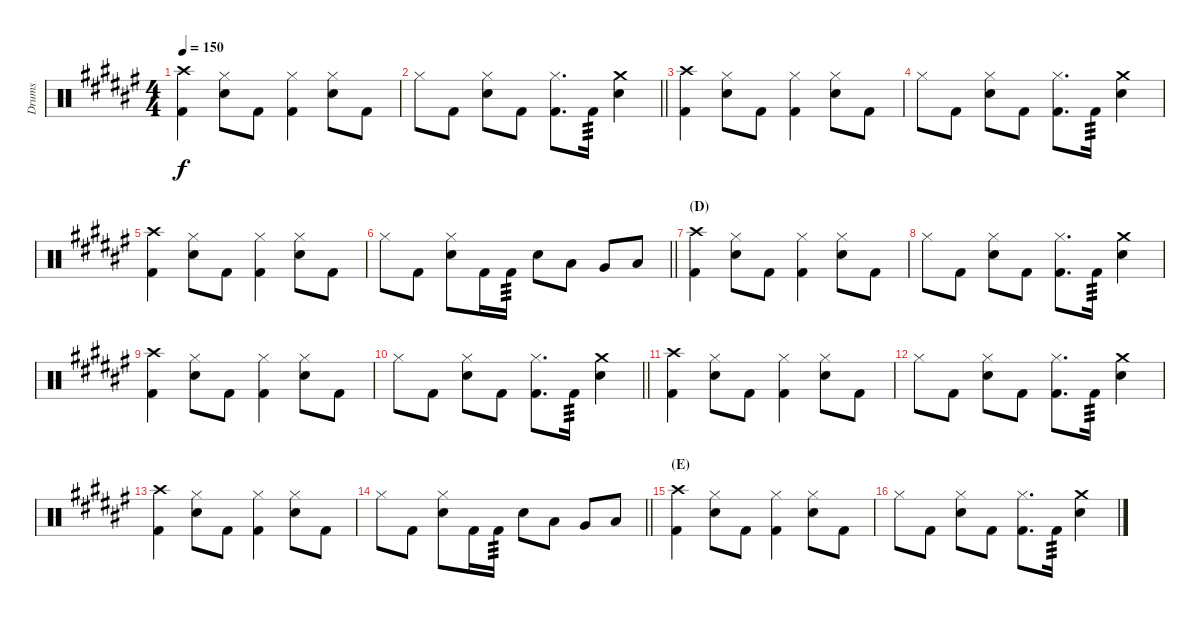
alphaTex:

\track ("Drums" "Drums") {instrument percussion}
\staff {score}
\articulation defaults
\ts (4 4)
\tempo 150
\clef neutral
\ks f#
("Crash high (hit)" "Kick (hit) 2").4{dy f} ("Electric Snare (hit)" "Hi-Hat (closed)").8 "Kick (hit) 2".8 ("Hi-Hat (closed)" "Kick (hit) 2").4 ("Electric Snare (hit)" "Hi-Hat (closed)").8 "Kick (hit) 2".8 |
\barLineRight lightlight "Hi-Hat (closed)".8 "Kick (hit) 2".8
("Electric Snare (hit)" "Hi-Hat (closed)").8 "Kick (hit) 2".8 ("Hi-Hat (closed)" "Kick (hit) 2").8{d} "Kick (hit) 2".16{tp 3} ("Crash medium (hit)" "Electric Snare (hit)").4 |
("Crash high (hit)" "Kick (hit) 2").4 ("Electric Snare (hit)" "Hi-Hat (closed)").8 "Kick (hit) 2".8 ("Hi-Hat (closed)" "Kick (hit) 2").4 ("Electric Snare (hit)" "Hi-Hat (closed)").8 "Kick (hit) 2".8 |
"Hi-Hat (closed)".8 "Kick (hit) 2".8 ("Electric Snare (hit)" "Hi-Hat (closed)").8 "Kick (hit) 2".8 ("Hi-Hat (closed)" "Kick (hit) 2").8{d} "Kick (hit) 2".16{tp 3} ("Crash medium (hit)" "Electric Snare (hit)").4 |
("Crash high (hit)" "Kick (hit) 2").4 ("Electric Snare (hit)" "Hi-Hat (closed)").8 "Kick (hit) 2".8 ("Hi-Hat (closed)" "Kick (hit) 2").4 ("Electric Snare (hit)" "Hi-Hat (closed)").8 "Kick (hit) 2".8 |
\barLineRight lightlight "Hi-Hat (closed)".8 "Kick (hit) 2".8
("Electric Snare (hit)" "Hi-Hat (closed)").8 "Kick (hit) 2".16 "Kick (hit) 2".16{tp 3} "Electric Snare (hit)".8 "Low Floor Tom (hit)".8 "Very Low Tom (hit)".8 "Low Floor Tom (hit)".8 |
\section ("" "(D)")
("Crash high (hit)" "Kick (hit) 2").4 ("Electric Snare (hit)" "Hi-Hat (closed)").8 "Kick (hit) 2".8 ("Hi-Hat (closed)" "Kick (hit) 2").4 ("Electric Snare (hit)" "Hi-Hat (closed)").8 "Kick (hit) 2".8 |
"Hi-Hat (closed)".8 "Kick (hit) 2".8 ("Electric Snare (hit)" "Hi-Hat (closed)").8 "Kick (hit) 2".8 ("Hi-Hat (closed)" "Kick (hit) 2").8{d} "Kick (hit) 2".16{tp 3} ("Crash medium (hit)" "Electric Snare (hit)").4 |
("Crash high (hit)" "Kick (hit) 2").4 ("Electric Snare (hit)" "Hi-Hat (closed)").8 "Kick (hit) 2".8 ("Hi-Hat (closed)" "Kick (hit) 2").4 ("Electric Snare (hit)" "Hi-Hat (closed)").8 "Kick (hit) 2".8 |
\barLineRight lightlight "Hi-Hat (closed)".8 "Kick (hit) 2".8
("Electric Snare (hit)" "Hi-Hat (closed)").8 "Kick (hit) 2".8 ("Hi-Hat (closed)" "Kick (hit) 2").8{d} "Kick (hit) 2".16{tp 3} ("Crash medium (hit)" "Electric Snare (hit)").4 |
("Crash high (hit)" "Kick (hit) 2").4 ("Electric Snare (hit)" "Hi-Hat (closed)").8 "Kick (hit) 2".8 ("Hi-Hat (closed)" "Kick (hit) 2").4 ("Electric Snare (hit)" "Hi-Hat (closed)").8 "Kick (hit) 2".8 |
"Hi-Hat (closed)".8 "Kick (hit) 2".8 ("Electric Snare (hit)" "Hi-Hat (closed)").8 "Kick (hit) 2".8 ("Hi-Hat (closed)" "Kick (hit) 2").8{d} "Kick (hit) 2".16{tp 3} ("Crash medium (hit)" "Electric Snare (hit)").4 |
("Crash high (hit)" "Kick (hit) 2").4 ("Electric Snare (hit)" "Hi-Hat (closed)").8 "Kick (hit) 2".8 ("Hi-Hat (closed)" "Kick (hit) 2").4 ("Electric Snare (hit)" "Hi-Hat (closed)").8 "Kick (hit) 2".8 |
\barLineRight lightlight "Hi-Hat (closed)".8 "Kick (hit) 2".8
("Electric Snare (hit)" "Hi-Hat (closed)").8 "Kick (hit) 2".16 "Kick (hit) 2".16{tp 3} "Electric Snare (hit)".8 "Low Floor Tom (hit)".8 "Very Low Tom (hit)".8 "Low Floor Tom (hit)".8 |
\section ("" "(E)")
("Crash high (hit)" "Kick (hit) 2").4 ("Electric Snare (hit)" "Hi-Hat (closed)").8 "Kick (hit) 2".8 ("Hi-Hat (closed)" "Kick (hit) 2").4 ("Electric Snare (hit)" "Hi-Hat (closed)").8 "Kick (hit) 2".8 |
"Hi-Hat (closed)".8 "Kick (hit) 2".8 ("Electric Snare (hit)" "Hi-Hat (closed)").8 "Kick (hit) 2".8 ("Hi-Hat (closed)" "Kick (hit) 2").8{d} "Kick (hit) 2".16{tp 3} ("Crash medium (hit)" "Electric Snare (hit)").4
